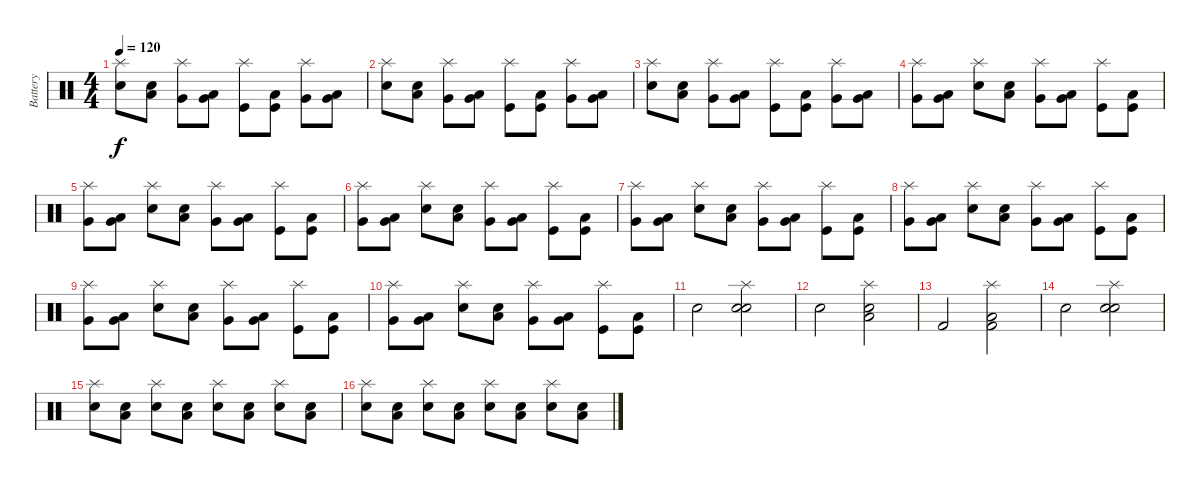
\track ("Battery" "Battery") {instrument percussion}
\staff {score}
\articulation defaults
\ts (4 4)
\tempo 120
\clef neutral
\ks c
("Snare (hit) 2" "Splash (hit)").8{dy f} ("Snare (hit) 2" "Low Floor Tom (hit)").8 ("Very Low Tom (hit)" "Splash (hit)").8 ("Very Low Tom (hit)" "Low Floor Tom (hit)").8 ("Kick (hit)" "Splash (hit)").8 ("Kick (hit)" "Low Floor Tom (hit)").8 ("Very Low Tom (hit)" "Splash (hit)").8 ("Very Low Tom (hit)" "Low Floor Tom (hit)").8 |
("Snare (hit) 2" "Splash (hit)").8 ("Snare (hit) 2" "Low Floor Tom (hit)").8 ("Very Low Tom (hit)" "Splash (hit)").8 ("Very Low Tom (hit)" "Low Floor Tom (hit)").8 ("Kick (hit)" "Splash (hit)").8 ("Kick (hit)" "Low Floor Tom (hit)").8 ("Very Low Tom (hit)" "Splash (hit)").8 ("Very Low Tom (hit)" "Low Floor Tom (hit)").8 |
("Snare (hit) 2" "Splash (hit)").8 ("Snare (hit) 2" "Low Floor Tom (hit)").8 ("Very Low Tom (hit)" "Splash (hit)").8 ("Very Low Tom (hit)" "Low Floor Tom (hit)").8 ("Kick (hit)" "Splash (hit)").8 ("Kick (hit)" "Low Floor Tom (hit)").8 ("Very Low Tom (hit)" "Splash (hit)").8 ("Very Low Tom (hit)" "Low Floor Tom (hit)").8 |
("Very Low Tom (hit)" "Splash (hit)").8 ("Very Low Tom (hit)" "Low Floor Tom (hit)").8 ("Snare (hit) 2" "Splash (hit)").8 ("Snare (hit) 2" "Low Floor Tom (hit)").8 ("Very Low Tom (hit)" "Splash (hit)").8 ("Very Low Tom (hit)" "Low Floor Tom (hit)").8 ("Kick (hit)" "Splash (hit)").8 ("Kick (hit)" "Low Floor Tom (hit)").8 |
("Very Low Tom (hit)" "Splash (hit)").8 ("Very Low Tom (hit)" "Low Floor Tom (hit)").8 ("Snare (hit) 2" "Splash (hit)").8 ("Snare (hit) 2" "Low Floor Tom (hit)").8 ("Very Low Tom (hit)" "Splash (hit)").8 ("Very Low Tom (hit)" "Low Floor Tom (hit)").8 ("Kick (hit)" "Splash (hit)").8 ("Kick (hit)" "Low Floor Tom (hit)").8 |
("Very Low Tom (hit)" "Splash (hit)").8 ("Very Low Tom (hit)" "Low Floor Tom (hit)").8 ("Snare (hit) 2" "Splash (hit)").8 ("Snare (hit) 2" "Low Floor Tom (hit)").8 ("Very Low Tom (hit)" "Splash (hit)").8 ("Very Low Tom (hit)" "Low Floor Tom (hit)").8 ("Kick (hit)" "Splash (hit)").8 ("Kick (hit)" "Low Floor Tom (hit)").8 |
("Very Low Tom (hit)" "Splash (hit)").8 ("Very Low Tom (hit)" "Low Floor Tom (hit)").8 ("Snare (hit) 2" "Splash (hit)").8 ("Snare (hit) 2" "Low Floor Tom (hit)").8 ("Very Low Tom (hit)" "Splash (hit)").8 ("Very Low Tom (hit)" "Low Floor Tom (hit)").8 ("Kick (hit)" "Splash (hit)").8 ("Kick (hit)" "Low Floor Tom (hit)").8 |
("Very Low Tom (hit)" "Splash (hit)").8 ("Very Low Tom (hit)" "Low Floor Tom (hit)").8 ("Snare (hit) 2" "Splash (hit)").8 ("Snare (hit) 2" "Low Floor Tom (hit)").8 ("Very Low Tom (hit)" "Splash (hit)").8 ("Very Low Tom (hit)" "Low Floor Tom (hit)").8 ("Kick (hit)" "Splash (hit)").8 ("Kick (hit)" "Low Floor Tom (hit)").8 |
("Very Low Tom (hit)" "Splash (hit)").8 ("Very Low Tom (hit)" "Low Floor Tom (hit)").8 ("Snare (hit) 2" "Splash (hit)").8 ("Snare (hit) 2" "Low Floor Tom (hit)").8 ("Very Low Tom (hit)" "Splash (hit)").8 ("Very Low Tom (hit)" "Low Floor Tom (hit)").8 ("Kick (hit)" "Splash (hit)").8 ("Kick (hit)" "Low Floor Tom (hit)").8 |
("Very Low Tom (hit)" "Splash (hit)").8 ("Very Low Tom (hit)" "Low Floor Tom (hit)").8 ("Snare (hit) 2" "Splash (hit)").8 ("Snare (hit) 2" "Low Floor Tom (hit)").8 ("Very Low Tom (hit)" "Splash (hit)").8 ("Very Low Tom (hit)" "Low Floor Tom (hit)").8 ("Kick (hit)" "Splash (hit)").8 ("Kick (hit)" "Low Floor Tom (hit)").8 |
"Snare (hit) 2".2 ("Snare (hit) 2" "Electric Snare (hit)" "Splash (hit)").2 |
"Electric Snare (hit)".2 ("Electric Snare (hit)" "Low Floor Tom (hit)" "Splash (hit)").2 |
"Kick (hit) 2".2 ("Kick (hit) 2" "Low Floor Tom (hit)" "Splash (hit)").2 |
"Snare (hit) 2".2 ("Snare (hit) 2" "Electric Snare (hit)" "Splash (hit)").2 |
("Snare (hit) 2" "Splash (hit)").8 ("Snare (hit) 2" "Low Floor Tom (hit)").8 ("Snare (hit) 2" "Splash (hit)").8 ("Snare (hit) 2" "Low Floor Tom (hit)").8 ("Snare (hit) 2" "Splash (hit)").8 ("Snare (hit) 2" "Low Floor Tom (hit)").8 ("Snare (hit) 2" "Splash (hit)").8 ("Snare (hit) 2" "Low Floor Tom (hit)").8 |
("Electric Snare (hit)" "Splash (hit)").8 ("Electric Snare (hit)" "Low Tom (hit)").8 ("Electric Snare (hit)" "Splash (hit)").8 ("Electric Snare (hit)" "Low Tom (hit)").8 ("Electric Snare (hit)" "Splash (hit)").8 ("Electric Snare (hit)" "Low Tom (hit)").8 ("Electric Snare (hit)" "Splash (hit)").8 ("Electric Snare (hit)" "Low Tom (hit)").8
